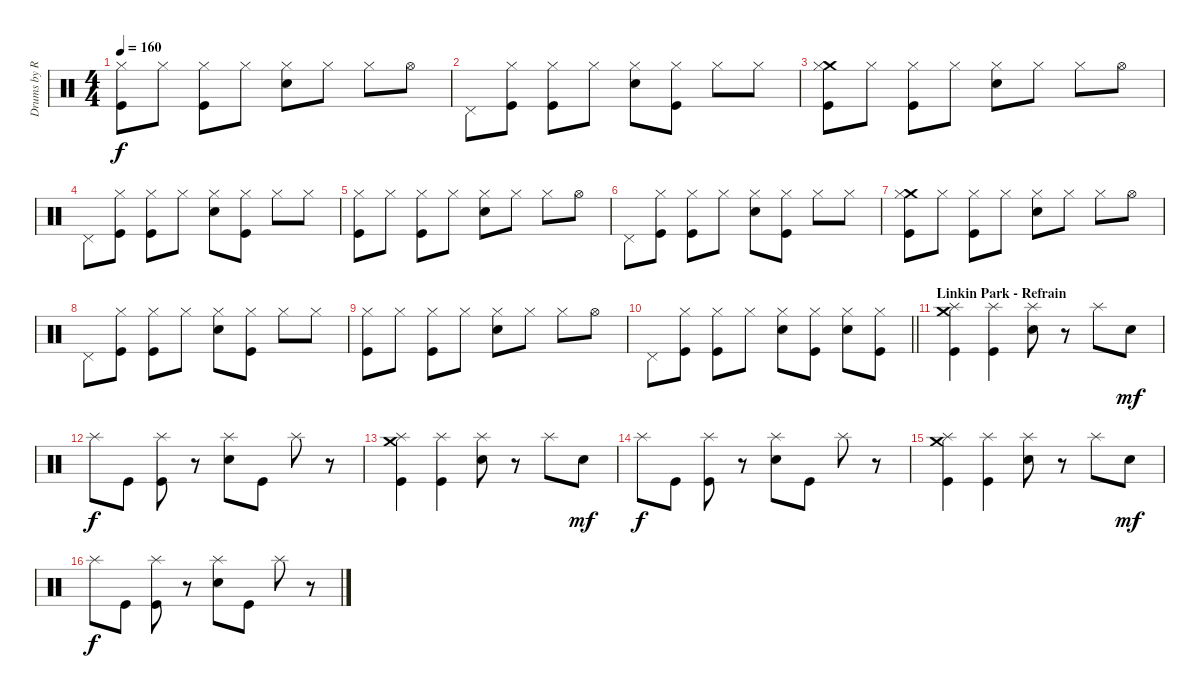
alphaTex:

\track ("Drums by Rob Bourdon" "Drums by R") {instrument percussion}
\staff {score}
\articulation defaults
\ts (4 4)
\tempo 160
\clef neutral
\ks c
("Hi-Hat (closed)" "Kick (hit)").8{dy f} "Hi-Hat (closed)".8 ("Hi-Hat (closed)" "Kick (hit)").8 "Hi-Hat (closed)".8 ("Hi-Hat (closed)" "Snare (hit) 2").8 "Hi-Hat (closed)".8 "Hi-Hat (closed)".8 "Hi-Hat (open)".8 |
"Pedal Hi-Hat (hit)".8 ("Hi-Hat (closed)" "Kick (hit)").8 ("Hi-Hat (closed)" "Kick (hit)").8 "Hi-Hat (closed)".8 ("Hi-Hat (closed)" "Snare (hit) 2").8 ("Hi-Hat (closed)" "Kick (hit)").8 "Hi-Hat (closed)".8 "Hi-Hat (closed)".8 |
("Crash medium (hit)" "Hi-Hat (closed)" "Kick (hit)").8 "Hi-Hat (closed)".8 ("Hi-Hat (closed)" "Kick (hit)").8 "Hi-Hat (closed)".8 ("Hi-Hat (closed)" "Snare (hit) 2").8 "Hi-Hat (closed)".8 "Hi-Hat (closed)".8 "Hi-Hat (open)".8 |
"Pedal Hi-Hat (hit)".8 ("Hi-Hat (closed)" "Kick (hit)").8 ("Hi-Hat (closed)" "Kick (hit)").8 "Hi-Hat (closed)".8 ("Hi-Hat (closed)" "Snare (hit) 2").8 ("Hi-Hat (closed)" "Kick (hit)").8 "Hi-Hat (closed)".8 "Hi-Hat (closed)".8 |
("Hi-Hat (closed)" "Kick (hit)").8 "Hi-Hat (closed)".8 ("Hi-Hat (closed)" "Kick (hit)").8 "Hi-Hat (closed)".8 ("Hi-Hat (closed)" "Snare (hit) 2").8 "Hi-Hat (closed)".8 "Hi-Hat (closed)".8 "Hi-Hat (open)".8 |
"Pedal Hi-Hat (hit)".8 ("Hi-Hat (closed)" "Kick (hit)").8 ("Hi-Hat (closed)" "Kick (hit)").8 "Hi-Hat (closed)".8 ("Hi-Hat (closed)" "Snare (hit) 2").8 ("Hi-Hat (closed)" "Kick (hit)").8 "Hi-Hat (closed)".8 "Hi-Hat (closed)".8 |
("Crash medium (hit)" "Hi-Hat (closed)" "Kick (hit)").8 "Hi-Hat (closed)".8 ("Hi-Hat (closed)" "Kick (hit)").8 "Hi-Hat (closed)".8 ("Hi-Hat (closed)" "Snare (hit) 2").8 "Hi-Hat (closed)".8 "Hi-Hat (closed)".8 "Hi-Hat (open)".8 |
"Pedal Hi-Hat (hit)".8 ("Hi-Hat (closed)" "Kick (hit)").8 ("Hi-Hat (closed)" "Kick (hit)").8 "Hi-Hat (closed)".8 ("Hi-Hat (closed)" "Snare (hit) 2").8 ("Hi-Hat (closed)" "Kick (hit)").8 "Hi-Hat (closed)".8 "Hi-Hat (closed)".8 |
("Hi-Hat (closed)" "Kick (hit)").8 "Hi-Hat (closed)".8 ("Hi-Hat (closed)" "Kick (hit)").8 "Hi-Hat (closed)".8 ("Hi-Hat (closed)" "Snare (hit) 2").8 "Hi-Hat (closed)".8 "Hi-Hat (closed)".8 "Hi-Hat (open)".8 |
\barLineRight lightlight "Pedal Hi-Hat (hit)".8
("Hi-Hat (closed)" "Kick (hit)").8 ("Hi-Hat (closed)" "Kick (hit)").8 "Hi-Hat (closed)".8 ("Hi-Hat (closed)" "Snare (hit) 2").8 ("Hi-Hat (closed)" "Kick (hit)").8 ("Hi-Hat (closed)" "Snare (hit) 2").8 ("Hi-Hat (closed)" "Kick (hit)").8 |
\section ("" "Linkin Park - Refrain")
("Crash medium (hit)" "Splash (hit)" "Kick (hit)").4 ("Splash (hit)" "Kick (hit)").4 ("Splash (hit)" "Snare (hit) 2").8 r.8 "Splash (hit)".8 "Snare (hit) 2".8{dy mf} |
"Splash (hit)".8{dy f} "Kick (hit)".8 ("Splash (hit)" "Kick (hit)").8 r.8 ("Splash (hit)" "Snare (hit) 2").8 "Kick (hit)".8 "Splash (hit)".8 r.8 |
("Crash medium (hit)" "Splash (hit)" "Kick (hit)").4 ("Splash (hit)" "Kick (hit)").4 ("Splash (hit)" "Snare (hit) 2").8 r.8 "Splash (hit)".8 "Snare (hit) 2".8{dy mf} |
"Splash (hit)".8{dy f} "Kick (hit)".8 ("Splash (hit)" "Kick (hit)").8 r.8 ("Splash (hit)" "Snare (hit) 2").8 "Kick (hit)".8 "Splash (hit)".8 r.8 |
("Crash medium (hit)" "Splash (hit)" "Kick (hit)").4 ("Splash (hit)" "Kick (hit)").4 ("Splash (hit)" "Snare (hit) 2").8 r.8 "Splash (hit)".8 "Snare (hit) 2".8{dy mf} |
"Splash (hit)".8{dy f} "Kick (hit)".8 ("Splash (hit)" "Kick (hit)").8 r.8 ("Splash (hit)" "Snare (hit) 2").8 "Kick (hit)".8 "Splash (hit)".8 r.8
